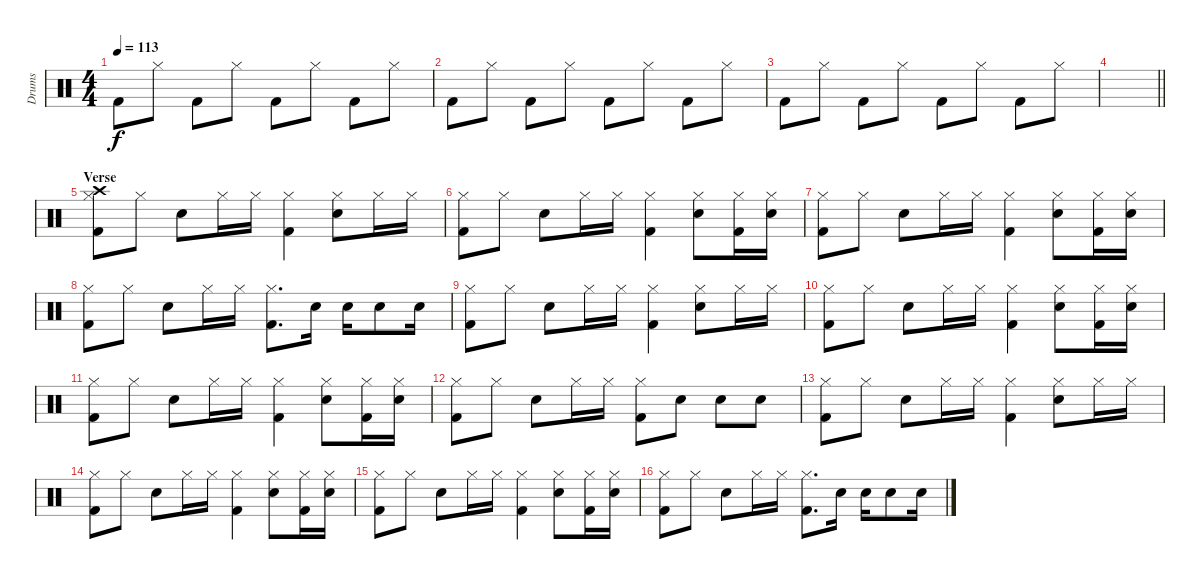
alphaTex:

\track ("Drums" "Drums") {instrument percussion}
\staff {score}
\articulation defaults
\ts (4 4)
\tempo 113
\clef neutral
\ks c "Kick (hit) 2".8{dy f} "Hi-Hat (closed)".8 "Kick (hit) 2".8 "Hi-Hat (closed)".8 "Kick (hit) 2".8 "Hi-Hat (closed)".8 "Kick (hit) 2".8 "Hi-Hat (closed)".8
|
"Kick (hit) 2".8 "Hi-Hat (closed)".8 "Kick (hit) 2".8 "Hi-Hat (closed)".8 "Kick (hit) 2".8 "Hi-Hat (closed)".8 "Kick (hit) 2".8 "Hi-Hat (closed)".8 |
"Kick (hit) 2".8 "Hi-Hat (closed)".8 "Kick (hit) 2".8 "Hi-Hat (closed)".8 "Kick (hit) 2".8 "Hi-Hat (closed)".8 "Kick (hit) 2".8 "Hi-Hat (closed)".8 |
\barLineRight lightlight
|
\section ("" "Verse")
("Hi-Hat (closed)" "Kick (hit) 2" "Crash high (hit)").8 "Hi-Hat (closed)".8 "Electric Snare (hit)".8 "Hi-Hat (closed)".16 "Hi-Hat (closed)".16 ("Kick (hit) 2" "Hi-Hat (closed)").4 ("Electric Snare (hit)" "Hi-Hat (closed)").8 "Hi-Hat (closed)".16 "Hi-Hat (closed)".16 |
("Hi-Hat (closed)" "Kick (hit) 2").8 "Hi-Hat (closed)".8 "Electric Snare (hit)".8 "Hi-Hat (closed)".16 "Hi-Hat (closed)".16 ("Kick (hit) 2" "Hi-Hat (closed)").4 ("Electric Snare (hit)" "Hi-Hat (closed)").8 ("Hi-Hat (closed)" "Kick (hit) 2").16 ("Hi-Hat (closed)" "Electric Snare (hit)").16 |
("Hi-Hat (closed)" "Kick (hit) 2").8 "Hi-Hat (closed)".8 "Electric Snare (hit)".8 "Hi-Hat (closed)".16 "Hi-Hat (closed)".16 ("Kick (hit) 2" "Hi-Hat (closed)").4 ("Electric Snare (hit)" "Hi-Hat (closed)").8 ("Hi-Hat (closed)" "Kick (hit) 2").16 ("Hi-Hat (closed)" "Electric Snare (hit)").16 |
("Hi-Hat (closed)" "Kick (hit) 2").8 "Hi-Hat (closed)".8 "Electric Snare (hit)".8 "Hi-Hat (closed)".16 "Hi-Hat (closed)".16 ("Kick (hit) 2" "Hi-Hat (closed)").8{d} "Electric Snare (hit)".16 "Electric Snare (hit)".16 "Electric Snare (hit)".8 "Electric Snare (hit)".16 |
("Hi-Hat (closed)" "Kick (hit) 2").8 "Hi-Hat (closed)".8 "Electric Snare (hit)".8 "Hi-Hat (closed)".16 "Hi-Hat (closed)".16 ("Kick (hit) 2" "Hi-Hat (closed)").4 ("Electric Snare (hit)" "Hi-Hat (closed)").8 "Hi-Hat (closed)".16 "Hi-Hat (closed)".16 |
("Hi-Hat (closed)" "Kick (hit) 2").8 "Hi-Hat (closed)".8 "Electric Snare (hit)".8 "Hi-Hat (closed)".16 "Hi-Hat (closed)".16 ("Kick (hit) 2" "Hi-Hat (closed)").4 ("Electric Snare (hit)" "Hi-Hat (closed)").8 ("Hi-Hat (closed)" "Kick (hit) 2").16 ("Hi-Hat (closed)" "Electric Snare (hit)").16 |
("Hi-Hat (closed)" "Kick (hit) 2").8 "Hi-Hat (closed)".8 "Electric Snare (hit)".8 "Hi-Hat (closed)".16 "Hi-Hat (closed)".16 ("Kick (hit) 2" "Hi-Hat (closed)").4 ("Electric Snare (hit)" "Hi-Hat (closed)").8 ("Hi-Hat (closed)" "Kick (hit) 2").16 ("Hi-Hat (closed)" "Electric Snare (hit)").16 |
("Hi-Hat (closed)" "Kick (hit) 2").8 "Hi-Hat (closed)".8 "Electric Snare (hit)".8 "Hi-Hat (closed)".16 "Hi-Hat (closed)".16 ("Kick (hit) 2" "Hi-Hat (closed)").8 "Electric Snare (hit)".8 "Electric Snare (hit)".8 "Electric Snare (hit)".8 |
("Hi-Hat (closed)" "Kick (hit) 2").8 "Hi-Hat (closed)".8 "Electric Snare (hit)".8 "Hi-Hat (closed)".16 "Hi-Hat (closed)".16 ("Kick (hit) 2" "Hi-Hat (closed)").4 ("Electric Snare (hit)" "Hi-Hat (closed)").8 "Hi-Hat (closed)".16 "Hi-Hat (closed)".16 |
("Hi-Hat (closed)" "Kick (hit) 2").8 "Hi-Hat (closed)".8 "Electric Snare (hit)".8 "Hi-Hat (closed)".16 "Hi-Hat (closed)".16 ("Kick (hit) 2" "Hi-Hat (closed)").4 ("Electric Snare (hit)" "Hi-Hat (closed)").8 ("Hi-Hat (closed)" "Kick (hit) 2").16 ("Hi-Hat (closed)" "Electric Snare (hit)").16 |
("Hi-Hat (closed)" "Kick (hit) 2").8 "Hi-Hat (closed)".8 "Electric Snare (hit)".8 "Hi-Hat (closed)".16 "Hi-Hat (closed)".16 ("Kick (hit) 2" "Hi-Hat (closed)").4 ("Electric Snare (hit)" "Hi-Hat (closed)").8 ("Hi-Hat (closed)" "Kick (hit) 2").16 ("Hi-Hat (closed)" "Electric Snare (hit)").16 |
("Hi-Hat (closed)" "Kick (hit) 2").8 "Hi-Hat (closed)".8 "Electric Snare (hit)".8 "Hi-Hat (closed)".16 "Hi-Hat (closed)".16 ("Kick (hit) 2" "Hi-Hat (closed)").8{d} "Electric Snare (hit)".16 "Electric Snare (hit)".16 "Electric Snare (hit)".8 "Electric Snare (hit)".16
